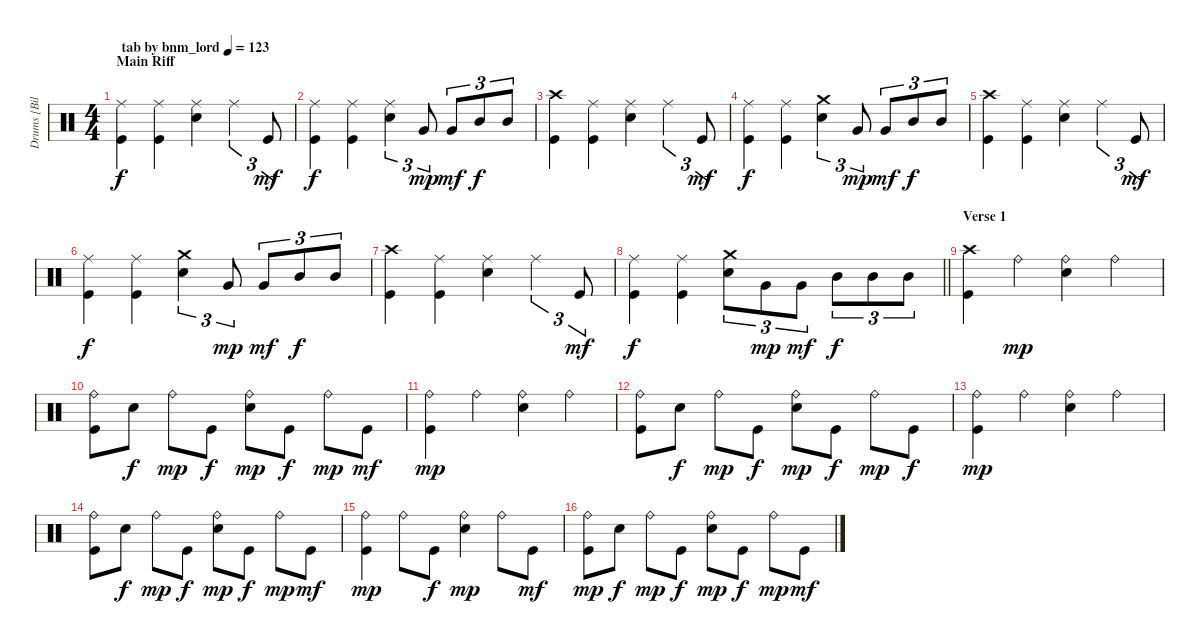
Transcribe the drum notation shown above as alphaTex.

\track ("Drums [Bill Ward]" "Drums [Bil") {instrument percussion}
\staff {score}
\articulation defaults
\ts (4 4)
\section ("" "Main Riff")
\tempo (123 "tab by bnm_lord")
\clef neutral
\ks c
("Ride (middle)" "Kick (hit)").4{dy f} ("Ride (middle)" "Kick (hit)").4 ("Ride (middle)" "Electric Snare (hit)").4 "Ride (middle)".4{tu (3 2)} "Kick (hit)".8{tu (3 2) dy mf} |
("Ride (middle)" "Kick (hit)").4{dy f} ("Ride (middle)" "Kick (hit)").4 ("Ride (middle)" "Electric Snare (hit)").4{tu (3 2)} "Very Low Tom (hit)".8{tu (3 2) dy mp} "Very Low Tom (hit)".8{tu (3 2) dy mf} "Mid Tom (hit)".8{tu (3 2) dy f} "Mid Tom (hit)".8{tu (3 2)} |
("Crash high (hit)" "Kick (hit)").4 ("Ride (middle)" "Kick (hit)").4 ("Ride (middle)" "Electric Snare (hit)").4 "Ride (middle)".4{tu (3 2)} "Kick (hit)".8{tu (3 2) dy mf} |
("Ride (middle)" "Kick (hit)").4{dy f} ("Ride (middle)" "Kick (hit)").4 ("Crash medium (hit)" "Electric Snare (hit)").4{tu (3 2)} "Very Low Tom (hit)".8{tu (3 2) dy mp} "Very Low Tom (hit)".8{tu (3 2) dy mf} "Mid Tom (hit)".8{tu (3 2) dy f} "Mid Tom (hit)".8{tu (3 2)} |
("Crash high (hit)" "Kick (hit)").4 ("Ride (middle)" "Kick (hit)").4 ("Ride (middle)" "Electric Snare (hit)").4 "Ride (middle)".4{tu (3 2)} "Kick (hit)".8{tu (3 2) dy mf} |
("Ride (middle)" "Kick (hit)").4{dy f} ("Ride (middle)" "Kick (hit)").4 ("Crash medium (hit)" "Electric Snare (hit)").4{tu (3 2)} "Very Low Tom (hit)".8{tu (3 2) dy mp} "Very Low Tom (hit)".8{tu (3 2) dy mf} "Mid Tom (hit)".8{tu (3 2) dy f} "Mid Tom (hit)".8{tu (3 2)} |
("Crash high (hit)" "Kick (hit)").4 ("Ride (middle)" "Kick (hit)").4 ("Ride (middle)" "Electric Snare (hit)").4 "Ride (middle)".4{tu (3 2)} "Kick (hit)".8{tu (3 2) dy mf} |
\barLineRight lightlight
("Ride (middle)" "Kick (hit)").4{dy f} ("Ride (middle)" "Kick (hit)").4 ("Crash medium (hit)" "Electric Snare (hit)").8{tu (3 2)} "Very Low Tom (hit)".8{tu (3 2) dy mp} "Very Low Tom (hit)".8{tu (3 2) dy mf} "Mid Tom (hit)".8{tu (3 2) dy f} "Mid Tom (hit)".8{tu (3 2)} "Mid Tom (hit)".8{tu (3 2)} |
\section ("" "Verse 1")
("Crash high (hit)" "Kick (hit)").4 "Ride (bell)".4{dy mp} ("Ride (bell)" "Electric Snare (hit)").4 "Ride (bell)".4 |
("Ride (bell)" "Kick (hit)").8 "Electric Snare (hit)".8{dy f} "Ride (bell)".8{dy mp} "Kick (hit)".8{dy f} ("Ride (bell)" "Electric Snare (hit)").8{dy mp} "Kick (hit)".8{dy f} "Ride (bell)".8{dy mp} "Kick (hit)".8{dy mf} |
("Ride (bell)" "Kick (hit)").4{dy mp} "Ride (bell)".4 ("Ride (bell)" "Electric Snare (hit)").4 "Ride (bell)".4 |
("Ride (bell)" "Kick (hit)").8 "Electric Snare (hit)".8{dy f} "Ride (bell)".8{dy mp} "Kick (hit)".8{dy f} ("Ride (bell)" "Electric Snare (hit)").8{dy mp} "Kick (hit)".8{dy f} "Ride (bell)".8{dy mp} "Kick (hit)".8{dy f} |
("Ride (bell)" "Kick (hit)").4{dy mp} "Ride (bell)".4 ("Ride (bell)" "Electric Snare (hit)").4 "Ride (bell)".4 |
("Ride (bell)" "Kick (hit)").8 "Electric Snare (hit)".8{dy f} "Ride (bell)".8{dy mp} "Kick (hit)".8{dy f} ("Ride (bell)" "Electric Snare (hit)").8{dy mp} "Kick (hit)".8{dy f} "Ride (bell)".8{dy mp} "Kick (hit)".8{dy mf} |
("Ride (bell)" "Kick (hit)").4{dy mp} "Ride (bell)".8 "Kick (hit)".8{dy f} ("Ride (bell)" "Electric Snare (hit)").4{dy mp} "Ride (bell)".8 "Kick (hit)".8{dy mf} |
("Ride (bell)" "Kick (hit)").8{dy mp} "Electric Snare (hit)".8{dy f} "Ride (bell)".8{dy mp} "Kick (hit)".8{dy f} ("Ride (bell)" "Electric Snare (hit)").8{dy mp} "Kick (hit)".8{dy f} "Ride (bell)".8{dy mp} "Kick (hit)".8{dy mf}
